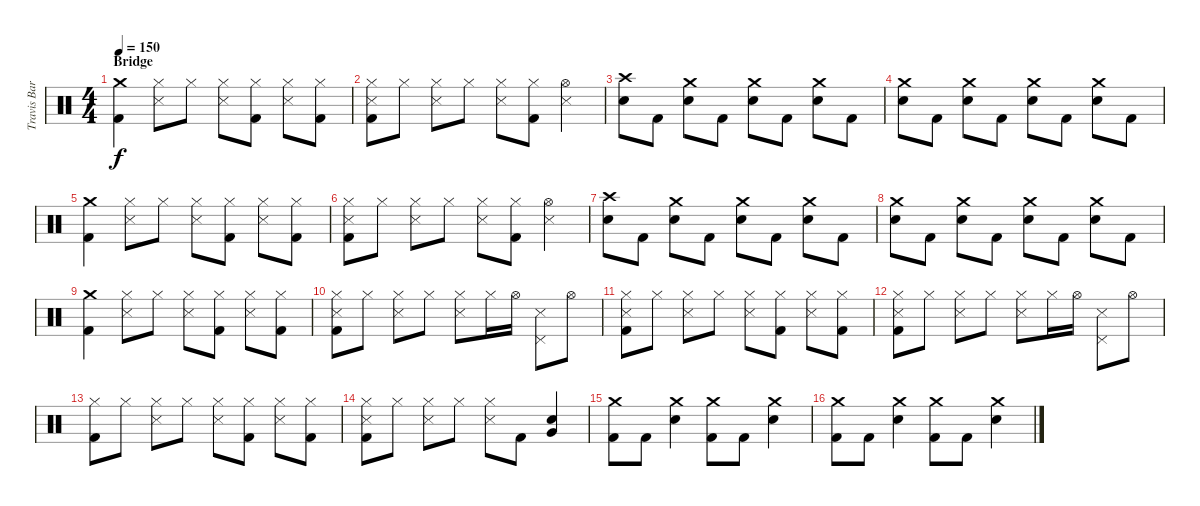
\track ("Travis Barker - Drums" "Travis Bar") {instrument percussion}
\staff {score}
\articulation defaults
\ts (4 4)
\section ("" "Bridge")
\tempo 150
\clef neutral
\ks c
("Crash medium (hit)" "Kick (hit) 2").4{dy f} ("Hi-Hat (closed)" "Snare (side stick) 3").8 "Hi-Hat (closed)".8 ("Hi-Hat (closed)" "Snare (side stick) 3").8 ("Hi-Hat (closed)" "Kick (hit) 2").8 ("Hi-Hat (closed)" "Snare (side stick) 3").8 ("Hi-Hat (closed)" "Kick (hit) 2").8 |
("Hi-Hat (closed)" "Snare (side stick) 3" "Kick (hit) 2").8 "Hi-Hat (closed)".8 ("Hi-Hat (closed)" "Snare (side stick) 3").8 "Hi-Hat (closed)".8 ("Hi-Hat (closed)" "Snare (side stick) 3").8 ("Hi-Hat (closed)" "Kick (hit) 2").8 ("Hi-Hat (open)" "Snare (side stick) 3").4 |
("Crash high (hit)" "Electric Snare (hit)").8 "Kick (hit) 2".8 ("Crash medium (hit)" "Electric Snare (hit)").8 "Kick (hit) 2".8 ("Crash medium (hit)" "Electric Snare (hit)").8 "Kick (hit) 2".8 ("Crash medium (hit)" "Electric Snare (hit)").8 "Kick (hit) 2".8 |
("Crash medium (hit)" "Electric Snare (hit)").8 "Kick (hit) 2".8 ("Crash medium (hit)" "Electric Snare (hit)").8 "Kick (hit) 2".8 ("Crash medium (hit)" "Electric Snare (hit)").8 "Kick (hit) 2".8 ("Crash medium (hit)" "Electric Snare (hit)").8 "Kick (hit) 2".8 |
("Crash medium (hit)" "Kick (hit) 2").4 ("Hi-Hat (closed)" "Snare (side stick) 3").8 "Hi-Hat (closed)".8 ("Hi-Hat (closed)" "Snare (side stick) 3").8 ("Hi-Hat (closed)" "Kick (hit) 2").8 ("Hi-Hat (closed)" "Snare (side stick) 3").8 ("Hi-Hat (closed)" "Kick (hit) 2").8 |
("Hi-Hat (closed)" "Snare (side stick) 3" "Kick (hit) 2").8 "Hi-Hat (closed)".8 ("Hi-Hat (closed)" "Snare (side stick) 3").8 "Hi-Hat (closed)".8 ("Hi-Hat (closed)" "Snare (side stick) 3").8 ("Hi-Hat (closed)" "Kick (hit) 2").8 ("Hi-Hat (open)" "Snare (side stick) 3").4 |
("Crash high (hit)" "Electric Snare (hit)").8 "Kick (hit) 2".8 ("Crash medium (hit)" "Electric Snare (hit)").8 "Kick (hit) 2".8 ("Crash medium (hit)" "Electric Snare (hit)").8 "Kick (hit) 2".8 ("Crash medium (hit)" "Electric Snare (hit)").8 "Kick (hit) 2".8 |
("Crash medium (hit)" "Electric Snare (hit)").8 "Kick (hit) 2".8 ("Crash medium (hit)" "Electric Snare (hit)").8 "Kick (hit) 2".8 ("Crash medium (hit)" "Electric Snare (hit)").8 "Kick (hit) 2".8 ("Crash medium (hit)" "Electric Snare (hit)").8 "Kick (hit) 2".8 |
("Crash medium (hit)" "Kick (hit) 2").4 ("Hi-Hat (closed)" "Snare (side stick) 3").8 "Hi-Hat (closed)".8 ("Hi-Hat (closed)" "Snare (side stick) 3").8 ("Hi-Hat (closed)" "Kick (hit) 2").8 ("Hi-Hat (closed)" "Snare (side stick) 3").8 ("Hi-Hat (closed)" "Kick (hit) 2").8 |
("Hi-Hat (closed)" "Snare (side stick) 3" "Kick (hit) 2").8 "Hi-Hat (closed)".8 ("Hi-Hat (closed)" "Snare (side stick) 3").8 "Hi-Hat (closed)".8 ("Hi-Hat (closed)" "Snare (side stick) 3").8 "Hi-Hat (closed)".16 "Hi-Hat (open)".16 ("Pedal Hi-Hat (hit)" "Snare (side stick) 3").8 "Hi-Hat (open)".8 |
("Hi-Hat (closed)" "Snare (side stick) 3" "Kick (hit) 2").8 "Hi-Hat (closed)".8 ("Hi-Hat (closed)" "Snare (side stick) 3").8 "Hi-Hat (closed)".8 ("Hi-Hat (closed)" "Snare (side stick) 3").8 ("Hi-Hat (closed)" "Kick (hit) 2").8 ("Hi-Hat (closed)" "Snare (side stick) 3").8 ("Hi-Hat (closed)" "Kick (hit) 2").8 |
("Hi-Hat (closed)" "Snare (side stick) 3" "Kick (hit) 2").8 "Hi-Hat (closed)".8 ("Hi-Hat (closed)" "Snare (side stick) 3").8 "Hi-Hat (closed)".8 ("Hi-Hat (closed)" "Snare (side stick) 3").8 "Hi-Hat (closed)".16 "Hi-Hat (open)".16 ("Pedal Hi-Hat (hit)" "Snare (side stick) 3").8 "Hi-Hat (open)".8 |
("Hi-Hat (closed)" "Kick (hit) 2").8 "Hi-Hat (closed)".8 ("Hi-Hat (closed)" "Snare (side stick) 3").8 "Hi-Hat (closed)".8 ("Hi-Hat (closed)" "Snare (side stick) 3").8 ("Hi-Hat (closed)" "Kick (hit) 2").8 ("Hi-Hat (closed)" "Snare (side stick) 3").8 ("Hi-Hat (closed)" "Kick (hit) 2").8 |
("Hi-Hat (closed)" "Snare (side stick) 3" "Kick (hit) 2").8 "Hi-Hat (closed)".8 ("Hi-Hat (closed)" "Snare (side stick) 3").8 "Hi-Hat (closed)".8 ("Hi-Hat (closed)" "Snare (side stick) 3").8 "Kick (hit) 2".8 ("Electric Snare (hit)" "Very Low Tom (hit)").4 |
("Crash medium (hit)" "Kick (hit) 2").8 "Kick (hit) 2".8 ("Crash medium (hit)" "Electric Snare (hit)").4 ("Crash medium (hit)" "Kick (hit) 2").8 "Kick (hit) 2".8 ("Crash medium (hit)" "Electric Snare (hit)").4 |
("Crash medium (hit)" "Kick (hit) 2").8 "Kick (hit) 2".8 ("Crash medium (hit)" "Electric Snare (hit)").4 ("Crash medium (hit)" "Kick (hit) 2").8 "Kick (hit) 2".8 ("Crash medium (hit)" "Electric Snare (hit)").4
